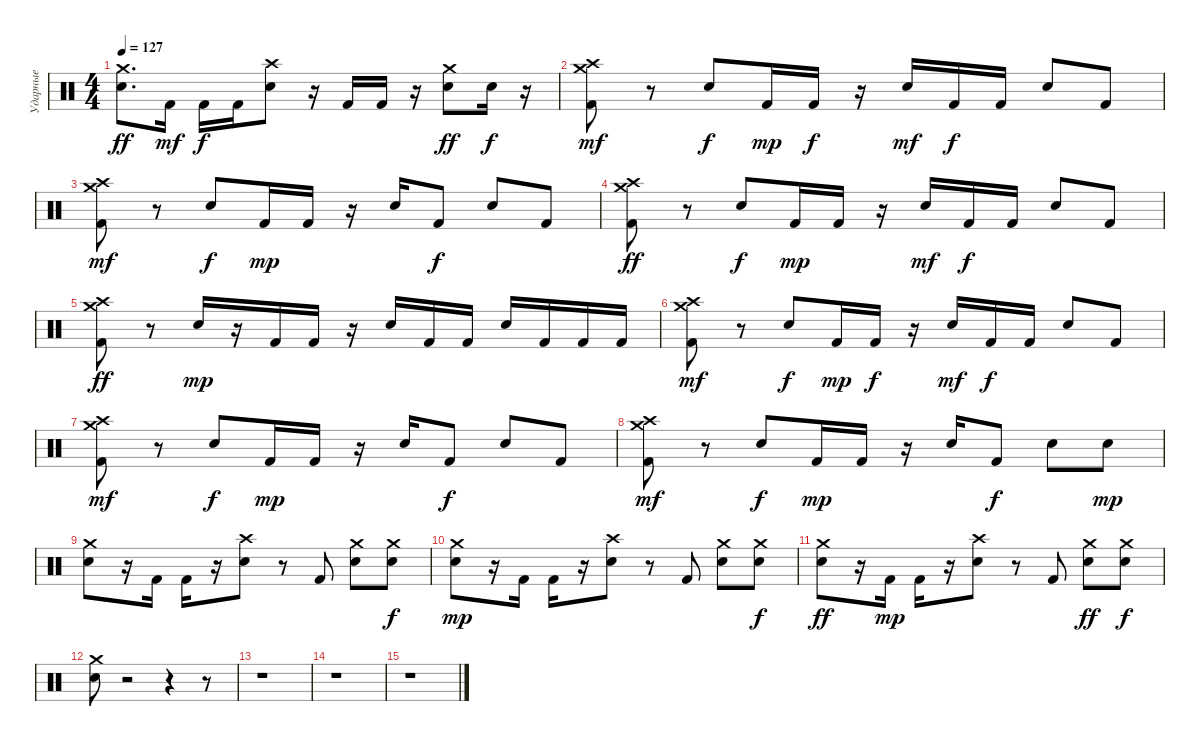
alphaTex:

\track ("Ударные" "Ударные") {instrument percussion}
\staff {score}
\articulation defaults
\ts (4 4)
\tempo 127
\clef neutral
\ks c
("Crash medium (hit)" "Snare (hit) 2").8{d dy ff} "Kick (hit) 2".16{dy mf} "Kick (hit) 2".16{dy f} "Kick (hit) 2".16 ("Snare (hit) 2" "Crash high (hit)").8 r.16 "Kick (hit) 2".16 "Kick (hit) 2".16 r.16 ("Snare (hit) 2" "Crash medium (hit)").8{dy ff} "Snare (hit) 2".16{dy f} r.16 |
("Kick (hit) 2" "Crash medium (hit)" "Crash high (hit)").8{dy mf} r.8 "Snare (hit) 2".8{dy f} "Kick (hit) 2".16{dy mp} "Kick (hit) 2".16{dy f} r.16 "Electric Snare (hit)".16{dy mf} "Kick (hit) 2".16{dy f} "Kick (hit) 2".16 "Snare (hit) 2".8 "Kick (hit) 2".8 |
("Kick (hit) 2" "Crash medium (hit)" "Crash high (hit)").8{dy mf} r.8 "Snare (hit) 2".8{dy f} "Kick (hit) 2".16{dy mp} "Kick (hit) 2".16 r.16 "Electric Snare (hit)".16 "Kick (hit) 2".8{dy f} "Snare (hit) 2".8 "Kick (hit) 2".8 |
("Crash high (hit)" "Crash medium (hit)" "Kick (hit) 2").8{dy ff} r.8 "Snare (hit) 2".8{dy f} "Kick (hit) 2".16{dy mp} "Kick (hit) 2".16 r.16 "Electric Snare (hit)".16{dy mf} "Kick (hit) 2".16{dy f} "Kick (hit) 2".16 "Snare (hit) 2".8 "Kick (hit) 2".8 |
("Crash high (hit)" "Crash medium (hit)" "Kick (hit) 2").8{dy ff} r.8 "Electric Snare (hit)".16{dy mp} r.16 "Kick (hit) 2".16 "Kick (hit) 2".16 r.16 "Electric Snare (hit)".16 "Kick (hit) 2".16 "Kick (hit) 2".16 "Electric Snare (hit)".16 "Kick (hit) 2".16 "Kick (hit) 2".16 "Kick (hit) 2".16 |
("Kick (hit) 2" "Crash medium (hit)" "Crash high (hit)").8{dy mf} r.8 "Snare (hit) 2".8{dy f} "Kick (hit) 2".16{dy mp} "Kick (hit) 2".16{dy f} r.16 "Electric Snare (hit)".16{dy mf} "Kick (hit) 2".16{dy f} "Kick (hit) 2".16 "Snare (hit) 2".8 "Kick (hit) 2".8 |
("Kick (hit) 2" "Crash medium (hit)" "Crash high (hit)").8{dy mf} r.8 "Snare (hit) 2".8{dy f} "Kick (hit) 2".16{dy mp} "Kick (hit) 2".16 r.16 "Electric Snare (hit)".16 "Kick (hit) 2".8{dy f} "Snare (hit) 2".8 "Kick (hit) 2".8 |
("Kick (hit) 2" "Crash medium (hit)" "Crash high (hit)").8{dy mf} r.8 "Snare (hit) 2".8{dy f} "Kick (hit) 2".16{dy mp} "Kick (hit) 2".16 r.16 "Electric Snare (hit)".16 "Kick (hit) 2".8{dy f} "Snare (hit) 2".8 "Snare (hit) 2".8{dy mp} |
("Crash medium (hit)" "Snare (hit) 2").8 r.16 "Kick (hit) 2".16 "Kick (hit) 2".16 r.16 ("Crash high (hit)" "Snare (hit) 2").8 r.8 "Kick (hit) 2".8 ("Crash medium (hit)" "Snare (hit) 2").8 ("Snare (hit) 2" "Crash medium (hit)").8{dy f} |
("Crash medium (hit)" "Snare (hit) 2").8{dy mp} r.16 "Kick (hit) 2".16 "Kick (hit) 2".16 r.16 ("Crash high (hit)" "Snare (hit) 2").8 r.8 "Kick (hit) 2".8 ("Crash medium (hit)" "Snare (hit) 2").8 ("Snare (hit) 2" "Crash medium (hit)").8{dy f} |
("Snare (hit) 2" "Crash medium (hit)").8{dy ff} r.16 "Kick (hit) 2".16{dy mp} "Kick (hit) 2".16 r.16 ("Snare (hit) 2" "Crash high (hit)").8 r.8 "Kick (hit) 2".8 ("Snare (hit) 2" "Crash medium (hit)").8{dy ff} ("Snare (hit) 2" "Crash medium (hit)").8{dy f} |
("Crash medium (hit)" "Snare (hit) 2").8 r.2 r.4 r.8 |
r.1 |
r.1 |
r.1
